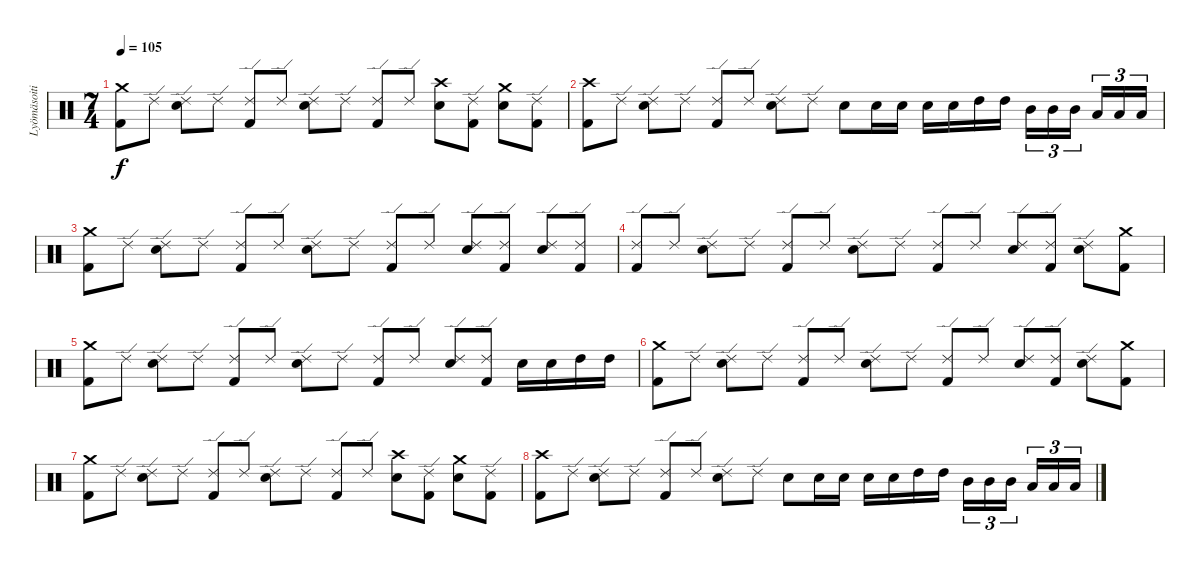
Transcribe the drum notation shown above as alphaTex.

\track ("Lyömäsoitin" "Lyömäsoiti") {instrument percussion}
\staff {score}
\articulation defaults
\ts (7 4)
\tempo 105
\clef neutral
\ks c
("Kick (hit) 2" "Crash medium (hit)").8{dy f volume 10} "Ride (edge) 2".8 ("Electric Snare (hit)" "Ride (edge) 2").8 "Ride (edge) 2".8 ("Kick (hit) 2" "Ride (edge) 2").8 "Ride (edge) 2".8 ("Electric Snare (hit)" "Ride (edge) 2").8 "Ride (edge) 2".8 ("Kick (hit) 2" "Ride (edge) 2").8 "Ride (edge) 2".8 ("Electric Snare (hit)" "Crash high (hit)").8 ("Kick (hit) 2" "Ride (edge) 2").8 ("Electric Snare (hit)" "Crash medium (hit)").8 ("Kick (hit) 2" "Ride (edge) 2").8 |
("Kick (hit) 2" "Crash high (hit)").8{volume 9} "Ride (edge) 2".8 ("Electric Snare (hit)" "Ride (edge) 2").8 "Ride (edge) 2".8 ("Kick (hit) 2" "Ride (edge) 2").8 "Ride (edge) 2".8 ("Electric Snare (hit)" "Ride (edge) 2").8 "Ride (edge) 2".8 "Electric Snare (hit)".8 "Electric Snare (hit)".16 "Electric Snare (hit)".16 "Electric Snare (hit)".16 "Electric Snare (hit)".16 "High Tom (hit)".16 "High Tom (hit)".16 "Mid Tom (hit)".16{tu (3 2)} "Mid Tom (hit)".16{tu (3 2)} "Mid Tom (hit)".16{tu (3 2)} "Low Tom (hit)".16{tu (3 2)} "Low Tom (hit)".16{tu (3 2)} "Low Tom (hit)".16{tu (3 2)} |
("Kick (hit) 2" "Crash medium (hit)").8{volume 8} "Ride (edge) 2".8 ("Electric Snare (hit)" "Ride (edge) 2").8 "Ride (edge) 2".8 ("Kick (hit) 2" "Ride (edge) 2").8 "Ride (edge) 2".8 ("Electric Snare (hit)" "Ride (edge) 2").8 "Ride (edge) 2".8 ("Kick (hit) 2" "Ride (edge) 2").8 "Ride (edge) 2".8 ("Electric Snare (hit)" "Ride (edge) 2").8 ("Kick (hit) 2" "Ride (edge) 2").8 ("Electric Snare (hit)" "Ride (edge) 2").8 ("Kick (hit) 2" "Ride (edge) 2").8 |
("Kick (hit) 2" "Ride (edge) 2").8{volume 7} "Ride (edge) 2".8 ("Electric Snare (hit)" "Ride (edge) 2").8 "Ride (edge) 2".8 ("Kick (hit) 2" "Ride (edge) 2").8 "Ride (edge) 2".8 ("Electric Snare (hit)" "Ride (edge) 2").8 "Ride (edge) 2".8 ("Kick (hit) 2" "Ride (edge) 2").8 "Ride (edge) 2".8 ("Electric Snare (hit)" "Ride (edge) 2").8 ("Kick (hit) 2" "Ride (edge) 2").8 ("Electric Snare (hit)" "Ride (edge) 2").8 ("Kick (hit) 2" "Crash medium (hit)").8 |
("Kick (hit) 2" "Crash medium (hit)").8{volume 6} "Ride (edge) 2".8 ("Electric Snare (hit)" "Ride (edge) 2").8 "Ride (edge) 2".8 ("Kick (hit) 2" "Ride (edge) 2").8 "Ride (edge) 2".8 ("Electric Snare (hit)" "Ride (edge) 2").8 "Ride (edge) 2".8 ("Kick (hit) 2" "Ride (edge) 2").8 "Ride (edge) 2".8 ("Electric Snare (hit)" "Ride (edge) 2").8 ("Kick (hit) 2" "Ride (edge) 2").8 "Electric Snare (hit)".16 "Electric Snare (hit)".16 "High Tom (hit)".16 "High Tom (hit)".16 |
("Kick (hit) 2" "Crash medium (hit)").8{volume 5} "Ride (edge) 2".8 ("Electric Snare (hit)" "Ride (edge) 2").8 "Ride (edge) 2".8 ("Kick (hit) 2" "Ride (edge) 2").8 "Ride (edge) 2".8 ("Electric Snare (hit)" "Ride (edge) 2").8 "Ride (edge) 2".8 ("Kick (hit) 2" "Ride (edge) 2").8 "Ride (edge) 2".8 ("Electric Snare (hit)" "Ride (edge) 2").8 ("Kick (hit) 2" "Ride (edge) 2").8 ("Electric Snare (hit)" "Ride (edge) 2").8 ("Kick (hit) 2" "Crash medium (hit)").8 |
("Kick (hit) 2" "Crash medium (hit)").8{volume 4} "Ride (edge) 2".8 ("Electric Snare (hit)" "Ride (edge) 2").8 "Ride (edge) 2".8 ("Kick (hit) 2" "Ride (edge) 2").8 "Ride (edge) 2".8 ("Electric Snare (hit)" "Ride (edge) 2").8 "Ride (edge) 2".8 ("Kick (hit) 2" "Ride (edge) 2").8 "Ride (edge) 2".8 ("Electric Snare (hit)" "Crash high (hit)").8 ("Kick (hit) 2" "Ride (edge) 2").8 ("Electric Snare (hit)" "Crash medium (hit)").8 ("Kick (hit) 2" "Ride (edge) 2").8 |
("Kick (hit) 2" "Crash high (hit)").8{volume 0} "Ride (edge) 2".8 ("Electric Snare (hit)" "Ride (edge) 2").8 "Ride (edge) 2".8 ("Kick (hit) 2" "Ride (edge) 2").8 "Ride (edge) 2".8 ("Electric Snare (hit)" "Ride (edge) 2").8 "Ride (edge) 2".8 "Electric Snare (hit)".8 "Electric Snare (hit)".16 "Electric Snare (hit)".16 "Electric Snare (hit)".16 "Electric Snare (hit)".16 "High Tom (hit)".16 "High Tom (hit)".16 "Mid Tom (hit)".16{tu (3 2)} "Mid Tom (hit)".16{tu (3 2)} "Mid Tom (hit)".16{tu (3 2)} "Low Tom (hit)".16{tu (3 2)} "Low Tom (hit)".16{tu (3 2)} "Low Tom (hit)".16{tu (3 2)}
